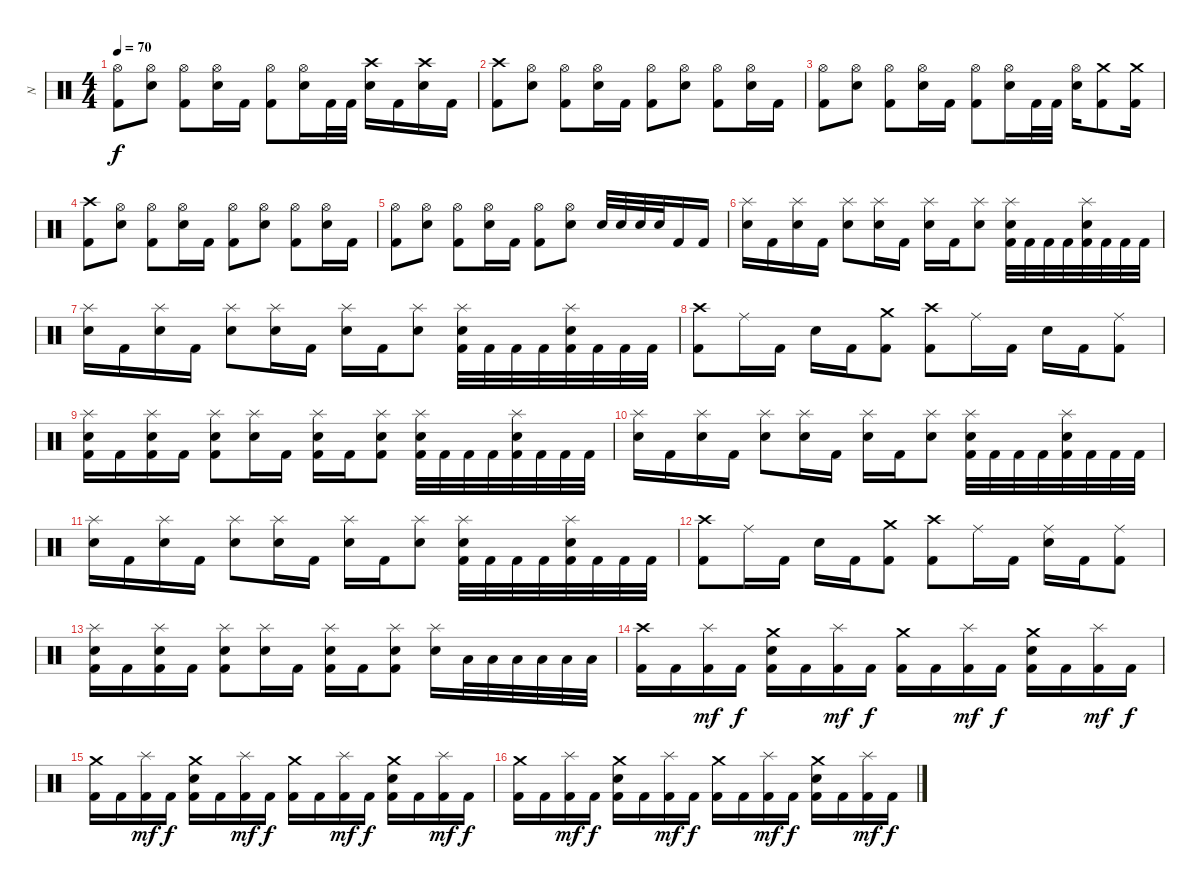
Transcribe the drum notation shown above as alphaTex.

\track ("N" "N") {instrument percussion}
\staff {score}
\articulation defaults
\ts (4 4)
\tempo 70
\clef neutral
\ks c
("Hi-Hat (open)" "Kick (hit) 2").8{dy f} ("Hi-Hat (open)" "Electric Snare (hit)").8 ("Hi-Hat (open)" "Kick (hit) 2").8 ("Hi-Hat (open)" "Electric Snare (hit)").16 "Kick (hit) 2".16 ("Hi-Hat (open)" "Kick (hit) 2").8 ("Hi-Hat (open)" "Electric Snare (hit)").16 "Kick (hit) 2".32 "Kick (hit) 2".32 ("Crash high (hit)" "Electric Snare (hit)").16 "Kick (hit) 2".16 ("Crash high (hit)" "Electric Snare (hit)").16 "Kick (hit) 2".16 |
("Crash high (hit)" "Kick (hit) 2").8 ("Hi-Hat (open)" "Electric Snare (hit)").8 ("Hi-Hat (open)" "Kick (hit) 2").8 ("Hi-Hat (open)" "Electric Snare (hit)").16 "Kick (hit) 2".16 ("Hi-Hat (open)" "Kick (hit) 2").8 ("Hi-Hat (open)" "Electric Snare (hit)").8 ("Hi-Hat (open)" "Kick (hit) 2").8 ("Hi-Hat (open)" "Electric Snare (hit)").16 "Kick (hit) 2".16 |
("Hi-Hat (open)" "Kick (hit) 2").8 ("Hi-Hat (open)" "Electric Snare (hit)").8 ("Hi-Hat (open)" "Kick (hit) 2").8 ("Hi-Hat (open)" "Electric Snare (hit)").16 "Kick (hit) 2".16 ("Hi-Hat (open)" "Kick (hit) 2").8 ("Hi-Hat (open)" "Electric Snare (hit)").16 "Kick (hit) 2".32 "Kick (hit) 2".32 ("Hi-Hat (open)" "Electric Snare (hit)").16 ("Crash medium (hit)" "Kick (hit) 2").8 ("Crash medium (hit)" "Kick (hit) 2").16 |
("Crash high (hit)" "Kick (hit) 2").8 ("Hi-Hat (open)" "Electric Snare (hit)").8 ("Hi-Hat (open)" "Kick (hit) 2").8 ("Hi-Hat (open)" "Electric Snare (hit)").16 "Kick (hit) 2".16 ("Hi-Hat (open)" "Kick (hit) 2").8 ("Hi-Hat (open)" "Electric Snare (hit)").8 ("Hi-Hat (open)" "Kick (hit) 2").8 ("Hi-Hat (open)" "Electric Snare (hit)").16 "Kick (hit) 2".16 |
("Hi-Hat (open)" "Kick (hit) 2").8 ("Hi-Hat (open)" "Electric Snare (hit)").8 ("Hi-Hat (open)" "Kick (hit) 2").8 ("Hi-Hat (open)" "Electric Snare (hit)").16 "Kick (hit) 2".16 ("Hi-Hat (open)" "Kick (hit) 2").8 ("Hi-Hat (open)" "Electric Snare (hit)").8 "Electric Snare (hit)".32 "Electric Snare (hit)".32 "Electric Snare (hit)".32 "Electric Snare (hit)".32 "Kick (hit) 2".16 "Kick (hit) 2".16 |
\section ("" " ")
("Splash (hit)" "Electric Snare (hit)").16 "Kick (hit) 2".16 ("Splash (hit)" "Electric Snare (hit)").16 "Kick (hit) 2".16 ("Splash (hit)" "Electric Snare (hit)").8 ("Splash (hit)" "Electric Snare (hit)").16 "Kick (hit) 2".16 ("Splash (hit)" "Electric Snare (hit)").16 "Kick (hit) 2".16 ("Splash (hit)" "Electric Snare (hit)").8 ("Splash (hit)" "Electric Snare (hit)" "Kick (hit) 2").32 "Kick (hit) 2".32 "Kick (hit) 2".32 "Kick (hit) 2".32 ("Splash (hit)" "Electric Snare (hit)" "Kick (hit) 2").32 "Kick (hit) 2".32 "Kick (hit) 2".32 "Kick (hit) 2".32 |
("Splash (hit)" "Electric Snare (hit)").16 "Kick (hit) 2".16 ("Splash (hit)" "Electric Snare (hit)").16 "Kick (hit) 2".16 ("Splash (hit)" "Electric Snare (hit)").8 ("Splash (hit)" "Electric Snare (hit)").16 "Kick (hit) 2".16 ("Splash (hit)" "Electric Snare (hit)").16 "Kick (hit) 2".16 ("Splash (hit)" "Electric Snare (hit)").8 ("Splash (hit)" "Electric Snare (hit)" "Kick (hit) 2").32 "Kick (hit) 2".32 "Kick (hit) 2".32 "Kick (hit) 2".32 ("Splash (hit)" "Electric Snare (hit)" "Kick (hit) 2").32 "Kick (hit) 2".32 "Kick (hit) 2".32 "Kick (hit) 2".32 |
("Crash high (hit)" "Kick (hit) 2").8 "Ride (middle)".16 "Kick (hit) 2".16 "Electric Snare (hit)".16 "Kick (hit) 2".16 ("Crash medium (hit)" "Kick (hit) 2").8 ("Crash high (hit)" "Kick (hit) 2").8 "Ride (middle)".16 "Kick (hit) 2".16 "Electric Snare (hit)".16 "Kick (hit) 2".16 ("Ride (middle)" "Kick (hit) 2").8 |
("Splash (hit)" "Electric Snare (hit)" "Kick (hit) 2").16 "Kick (hit) 2".16 ("Splash (hit)" "Electric Snare (hit)" "Kick (hit) 2").16 "Kick (hit) 2".16 ("Splash (hit)" "Electric Snare (hit)" "Kick (hit) 2").8 ("Splash (hit)" "Electric Snare (hit)").16 "Kick (hit) 2".16 ("Splash (hit)" "Electric Snare (hit)" "Kick (hit) 2").16 "Kick (hit) 2".16 ("Splash (hit)" "Electric Snare (hit)" "Kick (hit) 2").8 ("Splash (hit)" "Electric Snare (hit)" "Kick (hit) 2").32 "Kick (hit) 2".32 "Kick (hit) 2".32 "Kick (hit) 2".32 ("Splash (hit)" "Electric Snare (hit)" "Kick (hit) 2").32 "Kick (hit) 2".32 "Kick (hit) 2".32 "Kick (hit) 2".32 |
("Splash (hit)" "Electric Snare (hit)").16 "Kick (hit) 2".16 ("Splash (hit)" "Electric Snare (hit)").16 "Kick (hit) 2".16 ("Splash (hit)" "Electric Snare (hit)").8 ("Splash (hit)" "Electric Snare (hit)").16 "Kick (hit) 2".16 ("Splash (hit)" "Electric Snare (hit)").16 "Kick (hit) 2".16 ("Splash (hit)" "Electric Snare (hit)").8 ("Splash (hit)" "Electric Snare (hit)" "Kick (hit) 2").32 "Kick (hit) 2".32 "Kick (hit) 2".32 "Kick (hit) 2".32 ("Splash (hit)" "Electric Snare (hit)" "Kick (hit) 2").32 "Kick (hit) 2".32 "Kick (hit) 2".32 "Kick (hit) 2".32 |
("Splash (hit)" "Electric Snare (hit)").16 "Kick (hit) 2".16 ("Splash (hit)" "Electric Snare (hit)").16 "Kick (hit) 2".16 ("Splash (hit)" "Electric Snare (hit)").8 ("Splash (hit)" "Electric Snare (hit)").16 "Kick (hit) 2".16 ("Splash (hit)" "Electric Snare (hit)").16 "Kick (hit) 2".16 ("Splash (hit)" "Electric Snare (hit)").8 ("Splash (hit)" "Electric Snare (hit)" "Kick (hit) 2").32 "Kick (hit) 2".32 "Kick (hit) 2".32 "Kick (hit) 2".32 ("Splash (hit)" "Electric Snare (hit)" "Kick (hit) 2").32 "Kick (hit) 2".32 "Kick (hit) 2".32 "Kick (hit) 2".32 |
("Crash high (hit)" "Kick (hit) 2").8 "Ride (middle)".16 "Kick (hit) 2".16 "Electric Snare (hit)".16 "Kick (hit) 2".16 ("Crash medium (hit)" "Kick (hit) 2").8 ("Crash high (hit)" "Kick (hit) 2").8 "Ride (middle)".16 "Kick (hit) 2".16 ("Ride (middle)" "Electric Snare (hit)").16 "Kick (hit) 2".16 ("Ride (middle)" "Kick (hit) 2").8 |
("Splash (hit)" "Electric Snare (hit)" "Kick (hit) 2").16 "Kick (hit) 2".16 ("Splash (hit)" "Electric Snare (hit)" "Kick (hit) 2").16 "Kick (hit) 2".16 ("Splash (hit)" "Electric Snare (hit)" "Kick (hit) 2").8 ("Splash (hit)" "Electric Snare (hit)").16 "Kick (hit) 2".16 ("Splash (hit)" "Electric Snare (hit)" "Kick (hit) 2").16 "Kick (hit) 2".16 ("Splash (hit)" "Electric Snare (hit)" "Kick (hit) 2").8 ("Splash (hit)" "Electric Snare (hit)").16 "Low Tom (hit)".32 "Low Tom (hit)".32 "Low Tom (hit)".32 "Low Tom (hit)".32 "Low Tom (hit)".32 "Low Tom (hit)".32 |
\section ("" " ")
("Crash high (hit)" "Kick (hit) 2").16 "Kick (hit) 2".16 ("Splash (hit)" "Kick (hit) 2").16{dy mf} "Kick (hit) 2".16{dy f} ("Crash medium (hit)" "Electric Snare (hit)" "Kick (hit) 2").16 "Kick (hit) 2".16 ("Splash (hit)" "Kick (hit) 2").16{dy mf} "Kick (hit) 2".16{dy f} ("Crash medium (hit)" "Kick (hit) 2").16 "Kick (hit) 2".16 ("Splash (hit)" "Kick (hit) 2").16{dy mf} "Kick (hit) 2".16{dy f} ("Crash medium (hit)" "Electric Snare (hit)" "Kick (hit) 2").16 "Kick (hit) 2".16 ("Splash (hit)" "Kick (hit) 2").16{dy mf} "Kick (hit) 2".16{dy f} |
("Crash medium (hit)" "Kick (hit) 2").16 "Kick (hit) 2".16 ("Splash (hit)" "Kick (hit) 2").16{dy mf} "Kick (hit) 2".16{dy f} ("Crash medium (hit)" "Electric Snare (hit)" "Kick (hit) 2").16 "Kick (hit) 2".16 ("Splash (hit)" "Kick (hit) 2").16{dy mf} "Kick (hit) 2".16{dy f} ("Crash medium (hit)" "Kick (hit) 2").16 "Kick (hit) 2".16 ("Splash (hit)" "Kick (hit) 2").16{dy mf} "Kick (hit) 2".16{dy f} ("Crash medium (hit)" "Electric Snare (hit)" "Kick (hit) 2").16 "Kick (hit) 2".16 ("Splash (hit)" "Kick (hit) 2").16{dy mf} "Kick (hit) 2".16{dy f} |
("Crash medium (hit)" "Kick (hit) 2").16 "Kick (hit) 2".16 ("Splash (hit)" "Kick (hit) 2").16{dy mf} "Kick (hit) 2".16{dy f} ("Crash medium (hit)" "Electric Snare (hit)" "Kick (hit) 2").16 "Kick (hit) 2".16 ("Splash (hit)" "Kick (hit) 2").16{dy mf} "Kick (hit) 2".16{dy f} ("Crash medium (hit)" "Kick (hit) 2").16 "Kick (hit) 2".16 ("Splash (hit)" "Kick (hit) 2").16{dy mf} "Kick (hit) 2".16{dy f} ("Crash medium (hit)" "Electric Snare (hit)" "Kick (hit) 2").16 "Kick (hit) 2".16 ("Splash (hit)" "Kick (hit) 2").16{dy mf} "Kick (hit) 2".16{dy f}
